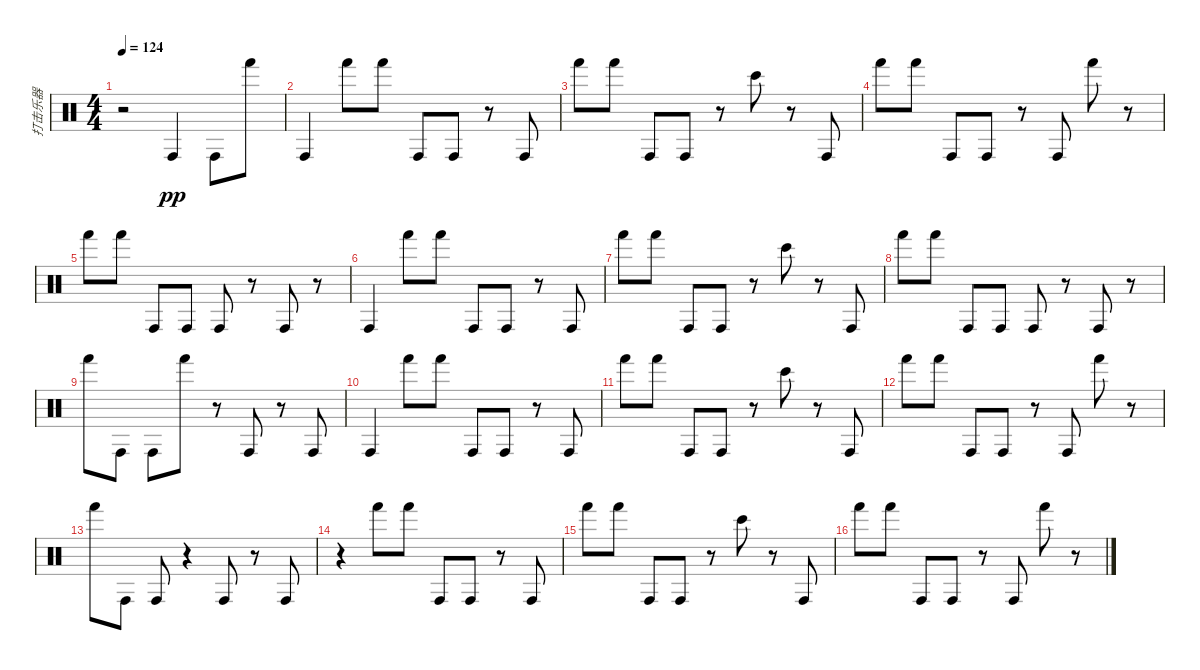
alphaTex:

\track ("打击乐器" "打击乐器") {instrument percussion}
\staff {score}
\articulation defaults
\ts (4 4)
\tempo 124
\clef neutral
\ks c
r.2{dy pp} "Conga high (hit)".4 "Conga high (hit)".8 "Hand (hit)".8 |
"Conga high (hit)".4 "Hand (hit)".8 "Hand (hit)".8 "Conga high (hit)".8 "Conga high (hit)".8 r.8 "Conga high (hit)".8 |
"Hand (hit)".8 "Hand (hit)".8 "Conga high (hit)".8 "Conga high (hit)".8 r.8 "Bongo High (hit)".8 r.8 "Conga high (hit)".8 |
"Hand (hit)".8 "Hand (hit)".8 "Conga high (hit)".8 "Conga high (hit)".8 r.8 "Conga high (hit)".8 "Hand (hit)".8 r.8 |
"Hand (hit)".8 "Hand (hit)".8 "Conga high (hit)".8 "Conga high (hit)".8 "Conga high (hit)".8 r.8 "Conga high (hit)".8 r.8 |
"Conga high (hit)".4 "Hand (hit)".8 "Hand (hit)".8 "Conga high (hit)".8 "Conga high (hit)".8 r.8 "Conga high (hit)".8 |
"Hand (hit)".8 "Hand (hit)".8 "Conga high (hit)".8 "Conga high (hit)".8 r.8 "Bongo High (hit)".8 r.8 "Conga high (hit)".8 |
"Hand (hit)".8 "Hand (hit)".8 "Conga high (hit)".8 "Conga high (hit)".8 "Conga high (hit)".8 r.8 "Conga high (hit)".8 r.8 |
"Hand (hit)".8 "Conga high (hit)".8 "Conga high (hit)".8 "Hand (hit)".8 r.8 "Conga high (hit)".8 r.8 "Conga high (hit)".8 |
"Conga high (hit)".4 "Hand (hit)".8 "Hand (hit)".8 "Conga high (hit)".8 "Conga high (hit)".8 r.8 "Conga high (hit)".8 |
"Hand (hit)".8 "Hand (hit)".8 "Conga high (hit)".8 "Conga high (hit)".8 r.8 "Bongo High (hit)".8 r.8 "Conga high (hit)".8 |
"Hand (hit)".8 "Hand (hit)".8 "Conga high (hit)".8 "Conga high (hit)".8 r.8 "Conga high (hit)".8 "Hand (hit)".8 r.8 |
"Hand (hit)".8 "Conga high (hit)".8 "Conga high (hit)".8 r.4 "Conga high (hit)".8 r.8 "Conga high (hit)".8 |
r.4 "Hand (hit)".8 "Hand (hit)".8 "Conga high (hit)".8 "Conga high (hit)".8 r.8 "Conga high (hit)".8 |
"Hand (hit)".8 "Hand (hit)".8 "Conga high (hit)".8 "Conga high (hit)".8 r.8 "Bongo High (hit)".8 r.8 "Conga high (hit)".8 |
"Hand (hit)".8 "Hand (hit)".8 "Conga high (hit)".8 "Conga high (hit)".8 r.8 "Conga high (hit)".8 "Hand (hit)".8 r.8
